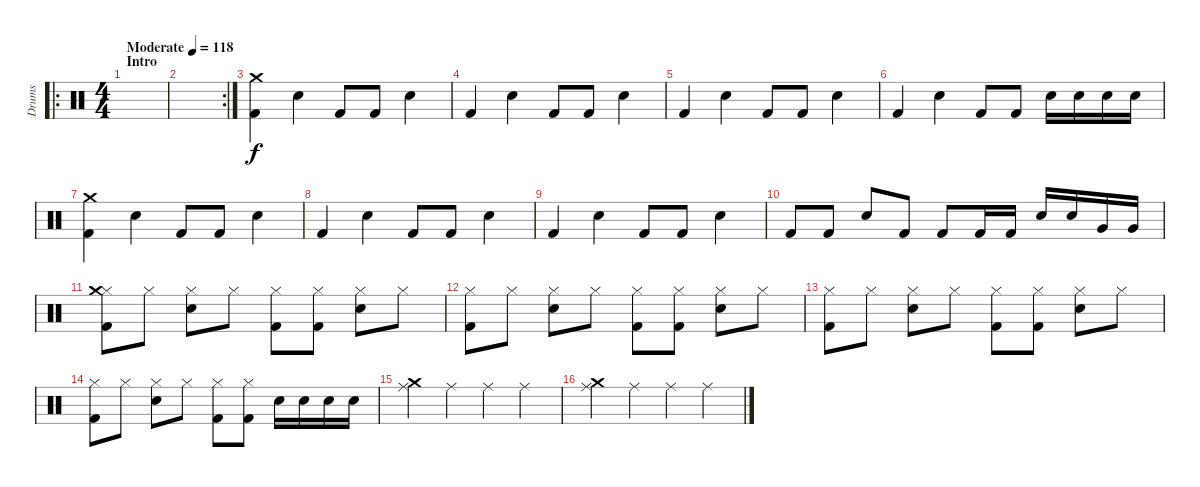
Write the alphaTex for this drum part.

\track ("Drums" "Drums") {instrument percussion}
\staff {score}
\articulation defaults
\ro
\ts (4 4)
\section ("" "Intro")
\tempo (118 "Moderate")
\clef neutral
\ks c
|
\rc 2
|
("Crash medium (hit)" "Kick (hit) 2").4 "Snare (hit) 2".4 "Kick (hit) 2".8 "Kick (hit) 2".8 "Snare (hit) 2".4 |
"Kick (hit) 2".4 "Snare (hit) 2".4 "Kick (hit) 2".8 "Kick (hit) 2".8 "Snare (hit) 2".4 |
"Kick (hit) 2".4 "Snare (hit) 2".4 "Kick (hit) 2".8 "Kick (hit) 2".8 "Snare (hit) 2".4 |
"Kick (hit) 2".4 "Snare (hit) 2".4 "Kick (hit) 2".8 "Kick (hit) 2".8 "Snare (hit) 2".16 "Snare (hit) 2".16 "Snare (hit) 2".16 "Snare (hit) 2".16 |
("Crash medium (hit)" "Kick (hit) 2").4 "Snare (hit) 2".4 "Kick (hit) 2".8 "Kick (hit) 2".8 "Snare (hit) 2".4 |
"Kick (hit) 2".4 "Snare (hit) 2".4 "Kick (hit) 2".8 "Kick (hit) 2".8 "Snare (hit) 2".4 |
"Kick (hit) 2".4 "Snare (hit) 2".4 "Kick (hit) 2".8 "Kick (hit) 2".8 "Snare (hit) 2".4 |
"Kick (hit) 2".8 "Kick (hit) 2".8 "Snare (hit) 2".8 "Kick (hit) 2".8 "Kick (hit) 2".8 "Kick (hit) 2".16 "Kick (hit) 2".16 "Snare (hit) 2".16 "Snare (hit) 2".16 "Very Low Tom (hit)".16 "Very Low Tom (hit)".16 |
("Hi-Hat (closed)" "Crash medium (hit)" "Kick (hit) 2").8 "Hi-Hat (closed)".8 ("Hi-Hat (closed)" "Snare (hit) 2").8 "Hi-Hat (closed)".8 ("Hi-Hat (closed)" "Kick (hit) 2").8 ("Hi-Hat (closed)" "Kick (hit) 2").8 ("Hi-Hat (closed)" "Snare (hit) 2").8 "Hi-Hat (closed)".8 |
("Hi-Hat (closed)" "Kick (hit) 2").8 "Hi-Hat (closed)".8 ("Hi-Hat (closed)" "Snare (hit) 2").8 "Hi-Hat (closed)".8 ("Hi-Hat (closed)" "Kick (hit) 2").8 ("Hi-Hat (closed)" "Kick (hit) 2").8 ("Hi-Hat (closed)" "Snare (hit) 2").8 "Hi-Hat (closed)".8 |
("Hi-Hat (closed)" "Kick (hit) 2").8 "Hi-Hat (closed)".8 ("Hi-Hat (closed)" "Snare (hit) 2").8 "Hi-Hat (closed)".8 ("Hi-Hat (closed)" "Kick (hit) 2").8 ("Hi-Hat (closed)" "Kick (hit) 2").8 ("Hi-Hat (closed)" "Snare (hit) 2").8 "Hi-Hat (closed)".8 |
("Hi-Hat (closed)" "Kick (hit) 2").8 "Hi-Hat (closed)".8 ("Hi-Hat (closed)" "Snare (hit) 2").8 "Hi-Hat (closed)".8 ("Hi-Hat (closed)" "Kick (hit) 2").8 ("Hi-Hat (closed)" "Kick (hit) 2").8 "Snare (hit) 2".16 "Snare (hit) 2".16 "Snare (hit) 2".16 "Snare (hit) 2".16 |
("Crash medium (hit)" "Ride (middle)").4 "Ride (middle)".4 "Ride (middle)".4 "Ride (middle)".4 |
("Crash medium (hit)" "Ride (middle)").4 "Ride (middle)".4 "Ride (middle)".4 "Ride (middle)".4
